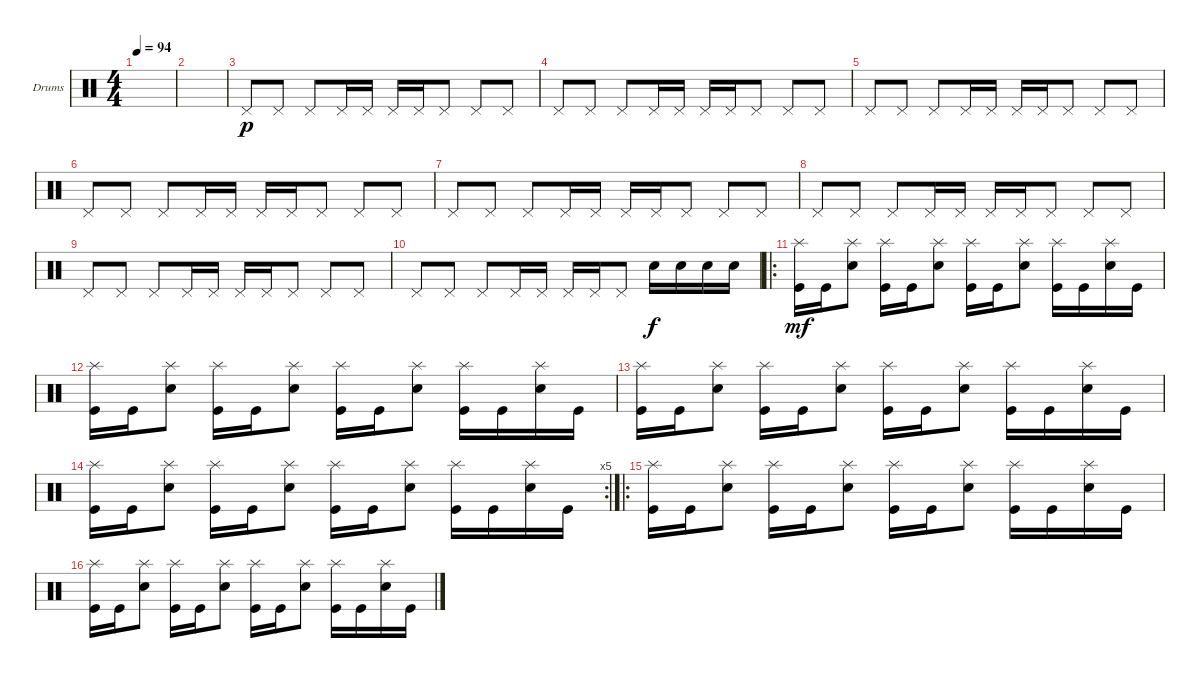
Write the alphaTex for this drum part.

\defaultSystemsLayout 4
\bracketExtendMode groupsimilarinstruments
\firstSystemTrackNameOrientation horizontal
\otherSystemsTrackNameOrientation horizontal
\track ("Тоха" "Drums") {instrument percussion}
\staff {score}
\articulation defaults
\ts (4 4)
\tempo 94
\clef neutral
\scale
0.333333
\ks c
|
\scale
0.333333 |
\scale
0.333333 "Pedal Hi-Hat (hit)".8{dy p} "Pedal Hi-Hat (hit)".8 "Pedal Hi-Hat (hit)".8 "Pedal Hi-Hat (hit)".16 "Pedal Hi-Hat (hit)".16 "Pedal Hi-Hat (hit)".16 "Pedal Hi-Hat (hit)".16 "Pedal Hi-Hat (hit)".8 "Pedal Hi-Hat (hit)".8 "Pedal Hi-Hat (hit)".8 |
\scale
0.333333 "Pedal Hi-Hat (hit)".8 "Pedal Hi-Hat (hit)".8 "Pedal Hi-Hat (hit)".8 "Pedal Hi-Hat (hit)".16 "Pedal Hi-Hat (hit)".16 "Pedal Hi-Hat (hit)".16 "Pedal Hi-Hat (hit)".16 "Pedal Hi-Hat (hit)".8 "Pedal Hi-Hat (hit)".8 "Pedal Hi-Hat (hit)".8 |
\scale
0.333333 "Pedal Hi-Hat (hit)".8 "Pedal Hi-Hat (hit)".8 "Pedal Hi-Hat (hit)".8 "Pedal Hi-Hat (hit)".16 "Pedal Hi-Hat (hit)".16 "Pedal Hi-Hat (hit)".16 "Pedal Hi-Hat (hit)".16 "Pedal Hi-Hat (hit)".8 "Pedal Hi-Hat (hit)".8 "Pedal Hi-Hat (hit)".8 |
\scale
0.333333 "Pedal Hi-Hat (hit)".8 "Pedal Hi-Hat (hit)".8 "Pedal Hi-Hat (hit)".8 "Pedal Hi-Hat (hit)".16 "Pedal Hi-Hat (hit)".16 "Pedal Hi-Hat (hit)".16 "Pedal Hi-Hat (hit)".16 "Pedal Hi-Hat (hit)".8 "Pedal Hi-Hat (hit)".8 "Pedal Hi-Hat (hit)".8 |
\scale
0.333333 "Pedal Hi-Hat (hit)".8 "Pedal Hi-Hat (hit)".8 "Pedal Hi-Hat (hit)".8 "Pedal Hi-Hat (hit)".16 "Pedal Hi-Hat (hit)".16 "Pedal Hi-Hat (hit)".16 "Pedal Hi-Hat (hit)".16 "Pedal Hi-Hat (hit)".8 "Pedal Hi-Hat (hit)".8 "Pedal Hi-Hat (hit)".8 |
\scale
0.333333 "Pedal Hi-Hat (hit)".8 "Pedal Hi-Hat (hit)".8 "Pedal Hi-Hat (hit)".8 "Pedal Hi-Hat (hit)".16 "Pedal Hi-Hat (hit)".16 "Pedal Hi-Hat (hit)".16 "Pedal Hi-Hat (hit)".16 "Pedal Hi-Hat (hit)".8 "Pedal Hi-Hat (hit)".8 "Pedal Hi-Hat (hit)".8 |
\scale
0.333333 "Pedal Hi-Hat (hit)".8 "Pedal Hi-Hat (hit)".8 "Pedal Hi-Hat (hit)".8 "Pedal Hi-Hat (hit)".16 "Pedal Hi-Hat (hit)".16 "Pedal Hi-Hat (hit)".16 "Pedal Hi-Hat (hit)".16 "Pedal Hi-Hat (hit)".8 "Pedal Hi-Hat (hit)".8 "Pedal Hi-Hat (hit)".8 |
\scale
0.333333 "Pedal Hi-Hat (hit)".8 "Pedal Hi-Hat (hit)".8 "Pedal Hi-Hat (hit)".8 "Pedal Hi-Hat (hit)".16 "Pedal Hi-Hat (hit)".16 "Pedal Hi-Hat (hit)".16 "Pedal Hi-Hat (hit)".16 "Pedal Hi-Hat (hit)".8 "Snare (hit) 2".16{dy f} "Snare (hit) 2".16 "Snare (hit) 2".16 "Snare (hit) 2".16 |
\ro
\scale
0.377778 ("Kick (hit)" "Splash (hit)").16{dy mf} "Kick (hit)".16 ("Snare (hit) 2" "Splash (hit)").8 ("Kick (hit)" "Splash (hit)").16 "Kick (hit)".16 ("Snare (hit) 2" "Splash (hit)").8 ("Kick (hit)" "Splash (hit)").16 "Kick (hit)".16 ("Snare (hit) 2" "Splash (hit)").8 ("Kick (hit)" "Splash (hit)").16 "Kick (hit)".16 ("Snare (hit) 2" "Splash (hit)").16 "Kick (hit)".16 |
\scale
0.311111 ("Kick (hit)" "Splash (hit)").16 "Kick (hit)".16 ("Snare (hit) 2" "Splash (hit)").8 ("Kick (hit)" "Splash (hit)").16 "Kick (hit)".16 ("Snare (hit) 2" "Splash (hit)").8 ("Kick (hit)" "Splash (hit)").16 "Kick (hit)".16 ("Snare (hit) 2" "Splash (hit)").8 ("Kick (hit)" "Splash (hit)").16 "Kick (hit)".16 ("Snare (hit) 2" "Splash (hit)").16 "Kick (hit)".16 |
\scale
0.311111 ("Kick (hit)" "Splash (hit)").16 "Kick (hit)".16 ("Snare (hit) 2" "Splash (hit)").8 ("Kick (hit)" "Splash (hit)").16 "Kick (hit)".16 ("Snare (hit) 2" "Splash (hit)").8 ("Kick (hit)" "Splash (hit)").16 "Kick (hit)".16 ("Snare (hit) 2" "Splash (hit)").8 ("Kick (hit)" "Splash (hit)").16 "Kick (hit)".16 ("Snare (hit) 2" "Splash (hit)").16 "Kick (hit)".16 |
\rc 5
\scale
0.333333 ("Kick (hit)" "Splash (hit)").16 "Kick (hit)".16 ("Snare (hit) 2" "Splash (hit)").8 ("Kick (hit)" "Splash (hit)").16 "Kick (hit)".16 ("Snare (hit) 2" "Splash (hit)").8 ("Kick (hit)" "Splash (hit)").16 "Kick (hit)".16 ("Snare (hit) 2" "Splash (hit)").8 ("Kick (hit)" "Splash (hit)").16 "Kick (hit)".16 ("Snare (hit) 2" "Splash (hit)").16 "Kick (hit)".16 |
\ro
\scale
0.365591 ("Kick (hit)" "Splash (hit)").16 "Kick (hit)".16 ("Snare (hit) 2" "Splash (hit)").8 ("Kick (hit)" "Splash (hit)").16 "Kick (hit)".16 ("Snare (hit) 2" "Splash (hit)").8 ("Kick (hit)" "Splash (hit)").16 "Kick (hit)".16 ("Snare (hit) 2" "Splash (hit)").8 ("Kick (hit)" "Splash (hit)").16 "Kick (hit)".16 ("Snare (hit) 2" "Splash (hit)").16 "Kick (hit)".16 |
\scale
0.301075 ("Kick (hit)" "Splash (hit)").16 "Kick (hit)".16 ("Snare (hit) 2" "Splash (hit)").8 ("Kick (hit)" "Splash (hit)").16 "Kick (hit)".16 ("Snare (hit) 2" "Splash (hit)").8 ("Kick (hit)" "Splash (hit)").16 "Kick (hit)".16 ("Snare (hit) 2" "Splash (hit)").8 ("Kick (hit)" "Splash (hit)").16 "Kick (hit)".16 ("Snare (hit) 2" "Splash (hit)").16 "Kick (hit)".16
